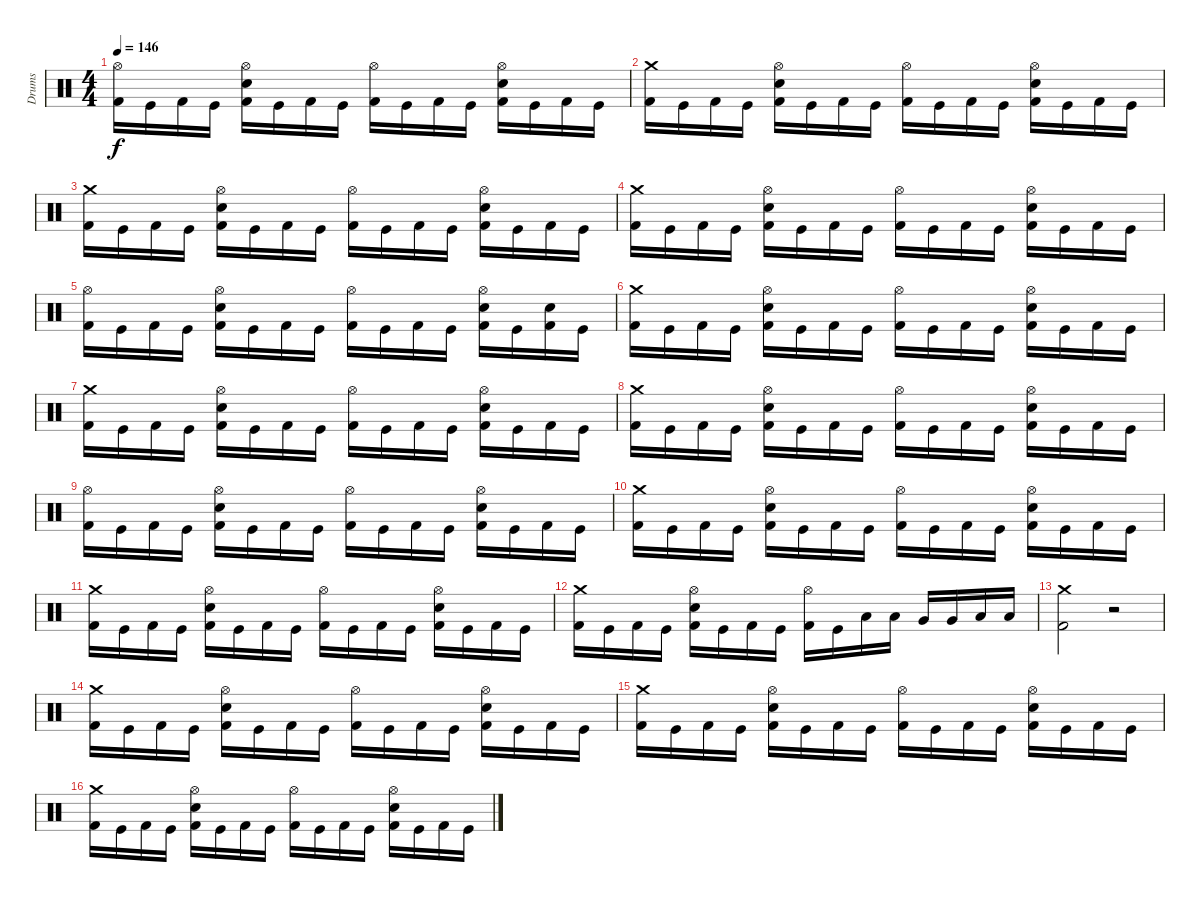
\track ("Drums" "Drums") {instrument percussion}
\staff {score}
\articulation defaults
\ts (4 4)
\tempo 146
\clef neutral
\ks c
("Hi-Hat (open)" "Kick (hit) 2").16{dy f} "Kick (hit)".16 "Kick (hit) 2".16 "Kick (hit)".16 ("Hi-Hat (open)" "Snare (hit) 2" "Kick (hit) 2").16 "Kick (hit)".16 "Kick (hit) 2".16 "Kick (hit)".16 ("Hi-Hat (open)" "Kick (hit) 2").16 "Kick (hit)".16 "Kick (hit) 2".16 "Kick (hit)".16 ("Hi-Hat (open)" "Snare (hit) 2" "Kick (hit) 2").16 "Kick (hit)".16 "Kick (hit) 2".16 "Kick (hit)".16 |
("Crash medium (hit)" "Kick (hit) 2").16 "Kick (hit)".16 "Kick (hit) 2".16 "Kick (hit)".16 ("Hi-Hat (open)" "Snare (hit) 2" "Kick (hit) 2").16 "Kick (hit)".16 "Kick (hit) 2".16 "Kick (hit)".16 ("Hi-Hat (open)" "Kick (hit) 2").16 "Kick (hit)".16 "Kick (hit) 2".16 "Kick (hit)".16 ("Hi-Hat (open)" "Snare (hit) 2" "Kick (hit) 2").16 "Kick (hit)".16 "Kick (hit) 2".16 "Kick (hit)".16 |
("Crash medium (hit)" "Kick (hit) 2").16 "Kick (hit)".16 "Kick (hit) 2".16 "Kick (hit)".16 ("Hi-Hat (open)" "Snare (hit) 2" "Kick (hit) 2").16 "Kick (hit)".16 "Kick (hit) 2".16 "Kick (hit)".16 ("Hi-Hat (open)" "Kick (hit) 2").16 "Kick (hit)".16 "Kick (hit) 2".16 "Kick (hit)".16 ("Hi-Hat (open)" "Snare (hit) 2" "Kick (hit) 2").16 "Kick (hit)".16 "Kick (hit) 2".16 "Kick (hit)".16 |
("Crash medium (hit)" "Kick (hit) 2").16 "Kick (hit)".16 "Kick (hit) 2".16 "Kick (hit)".16 ("Hi-Hat (open)" "Snare (hit) 2" "Kick (hit) 2").16 "Kick (hit)".16 "Kick (hit) 2".16 "Kick (hit)".16 ("Hi-Hat (open)" "Kick (hit) 2").16 "Kick (hit)".16 "Kick (hit) 2".16 "Kick (hit)".16 ("Hi-Hat (open)" "Snare (hit) 2" "Kick (hit) 2").16 "Kick (hit)".16 "Kick (hit) 2".16 "Kick (hit)".16 |
("Hi-Hat (open)" "Kick (hit) 2").16 "Kick (hit)".16 "Kick (hit) 2".16 "Kick (hit)".16 ("Hi-Hat (open)" "Snare (hit) 2" "Kick (hit) 2").16 "Kick (hit)".16 "Kick (hit) 2".16 "Kick (hit)".16 ("Hi-Hat (open)" "Kick (hit) 2").16 "Kick (hit)".16 "Kick (hit) 2".16 "Kick (hit)".16 ("Hi-Hat (open)" "Snare (hit) 2" "Kick (hit) 2").16 "Kick (hit)".16 ("Snare (hit) 2" "Kick (hit) 2").16 "Kick (hit)".16 |
("Crash medium (hit)" "Kick (hit) 2").16 "Kick (hit)".16 "Kick (hit) 2".16 "Kick (hit)".16 ("Hi-Hat (open)" "Snare (hit) 2" "Kick (hit) 2").16 "Kick (hit)".16 "Kick (hit) 2".16 "Kick (hit)".16 ("Hi-Hat (open)" "Kick (hit) 2").16 "Kick (hit)".16 "Kick (hit) 2".16 "Kick (hit)".16 ("Hi-Hat (open)" "Snare (hit) 2" "Kick (hit) 2").16 "Kick (hit)".16 "Kick (hit) 2".16 "Kick (hit)".16 |
("Crash medium (hit)" "Kick (hit) 2").16 "Kick (hit)".16 "Kick (hit) 2".16 "Kick (hit)".16 ("Hi-Hat (open)" "Snare (hit) 2" "Kick (hit) 2").16 "Kick (hit)".16 "Kick (hit) 2".16 "Kick (hit)".16 ("Hi-Hat (open)" "Kick (hit) 2").16 "Kick (hit)".16 "Kick (hit) 2".16 "Kick (hit)".16 ("Hi-Hat (open)" "Snare (hit) 2" "Kick (hit) 2").16 "Kick (hit)".16 "Kick (hit) 2".16 "Kick (hit)".16 |
("Crash medium (hit)" "Kick (hit) 2").16 "Kick (hit)".16 "Kick (hit) 2".16 "Kick (hit)".16 ("Hi-Hat (open)" "Snare (hit) 2" "Kick (hit) 2").16 "Kick (hit)".16 "Kick (hit) 2".16 "Kick (hit)".16 ("Hi-Hat (open)" "Kick (hit) 2").16 "Kick (hit)".16 "Kick (hit) 2".16 "Kick (hit)".16 ("Hi-Hat (open)" "Snare (hit) 2" "Kick (hit) 2").16 "Kick (hit)".16 "Kick (hit) 2".16 "Kick (hit)".16 |
("Hi-Hat (open)" "Kick (hit) 2").16 "Kick (hit)".16 "Kick (hit) 2".16 "Kick (hit)".16 ("Hi-Hat (open)" "Snare (hit) 2" "Kick (hit) 2").16 "Kick (hit)".16 "Kick (hit) 2".16 "Kick (hit)".16 ("Hi-Hat (open)" "Kick (hit) 2").16 "Kick (hit)".16 "Kick (hit) 2".16 "Kick (hit)".16 ("Hi-Hat (open)" "Snare (hit) 2" "Kick (hit) 2").16 "Kick (hit)".16 "Kick (hit) 2".16 "Kick (hit)".16 |
("Crash medium (hit)" "Kick (hit) 2").16 "Kick (hit)".16 "Kick (hit) 2".16 "Kick (hit)".16 ("Hi-Hat (open)" "Snare (hit) 2" "Kick (hit) 2").16 "Kick (hit)".16 "Kick (hit) 2".16 "Kick (hit)".16 ("Hi-Hat (open)" "Kick (hit) 2").16 "Kick (hit)".16 "Kick (hit) 2".16 "Kick (hit)".16 ("Hi-Hat (open)" "Snare (hit) 2" "Kick (hit) 2").16 "Kick (hit)".16 "Kick (hit) 2".16 "Kick (hit)".16 |
("Crash medium (hit)" "Kick (hit) 2").16 "Kick (hit)".16 "Kick (hit) 2".16 "Kick (hit)".16 ("Hi-Hat (open)" "Snare (hit) 2" "Kick (hit) 2").16 "Kick (hit)".16 "Kick (hit) 2".16 "Kick (hit)".16 ("Hi-Hat (open)" "Kick (hit) 2").16 "Kick (hit)".16 "Kick (hit) 2".16 "Kick (hit)".16 ("Hi-Hat (open)" "Snare (hit) 2" "Kick (hit) 2").16 "Kick (hit)".16 "Kick (hit) 2".16 "Kick (hit)".16 |
("Crash medium (hit)" "Kick (hit) 2").16 "Kick (hit)".16 "Kick (hit) 2".16 "Kick (hit)".16 ("Hi-Hat (open)" "Snare (hit) 2" "Kick (hit) 2").16 "Kick (hit)".16 "Kick (hit) 2".16 "Kick (hit)".16 ("Hi-Hat (open)" "Kick (hit) 2").16 "Kick (hit)".16 "Low Tom (hit)".16 "Low Tom (hit)".16 "Very Low Tom (hit)".16 "Very Low Tom (hit)".16 "Low Floor Tom (hit)".16 "Low Floor Tom (hit)".16 |
("Crash medium (hit)" "Kick (hit) 2").2 r.2 |
("Crash medium (hit)" "Kick (hit) 2").16 "Kick (hit)".16 "Kick (hit) 2".16 "Kick (hit)".16 ("Hi-Hat (open)" "Snare (hit) 2" "Kick (hit) 2").16 "Kick (hit)".16 "Kick (hit) 2".16 "Kick (hit)".16 ("Hi-Hat (open)" "Kick (hit) 2").16 "Kick (hit)".16 "Kick (hit) 2".16 "Kick (hit)".16 ("Hi-Hat (open)" "Snare (hit) 2" "Kick (hit) 2").16 "Kick (hit)".16 "Kick (hit) 2".16 "Kick (hit)".16 |
("Crash medium (hit)" "Kick (hit) 2").16 "Kick (hit)".16 "Kick (hit) 2".16 "Kick (hit)".16 ("Hi-Hat (open)" "Snare (hit) 2" "Kick (hit) 2").16 "Kick (hit)".16 "Kick (hit) 2".16 "Kick (hit)".16 ("Hi-Hat (open)" "Kick (hit) 2").16 "Kick (hit)".16 "Kick (hit) 2".16 "Kick (hit)".16 ("Hi-Hat (open)" "Snare (hit) 2" "Kick (hit) 2").16 "Kick (hit)".16 "Kick (hit) 2".16 "Kick (hit)".16 |
("Crash medium (hit)" "Kick (hit) 2").16 "Kick (hit)".16 "Kick (hit) 2".16 "Kick (hit)".16 ("Hi-Hat (open)" "Snare (hit) 2" "Kick (hit) 2").16 "Kick (hit)".16 "Kick (hit) 2".16 "Kick (hit)".16 ("Hi-Hat (open)" "Kick (hit) 2").16 "Kick (hit)".16 "Kick (hit) 2".16 "Kick (hit)".16 ("Hi-Hat (open)" "Snare (hit) 2" "Kick (hit) 2").16 "Kick (hit)".16 "Kick (hit) 2".16 "Kick (hit)".16
